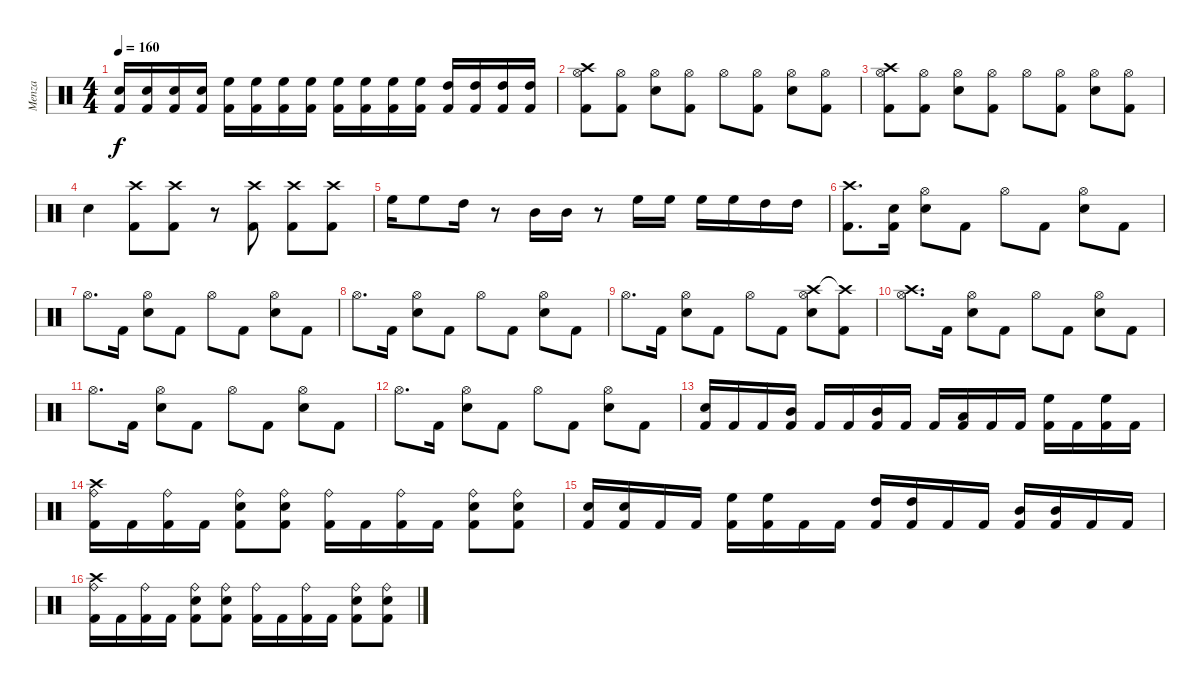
\track ("Menza" "Menza") {instrument percussion}
\staff {score}
\articulation defaults
\ts (4 4)
\tempo 160
\clef neutral
\ks c
("Snare (hit) 2" "Kick (hit) 2").16{dy f} ("Snare (hit) 2" "Kick (hit) 2").16 ("Snare (hit) 2" "Kick (hit) 2").16 ("Snare (hit) 2" "Kick (hit) 2").16 ("High Floor Tom (hit)" "Kick (hit) 2").16 ("High Floor Tom (hit)" "Kick (hit) 2").16 ("High Floor Tom (hit)" "Kick (hit) 2").16 ("High Floor Tom (hit)" "Kick (hit) 2").16 ("High Floor Tom (hit)" "Kick (hit) 2").16 ("High Floor Tom (hit)" "Kick (hit) 2").16 ("High Floor Tom (hit)" "Kick (hit) 2").16 ("High Floor Tom (hit)" "Kick (hit) 2").16 ("High Tom (hit)" "Kick (hit) 2").16 ("High Tom (hit)" "Kick (hit) 2").16 ("High Tom (hit)" "Kick (hit) 2").16 ("High Tom (hit)" "Kick (hit) 2").16 |
("Crash high (hit)" "Hi-Hat (open)" "Kick (hit) 2").8 ("Hi-Hat (open)" "Kick (hit) 2").8 ("Hi-Hat (open)" "Snare (hit) 2").8 ("Hi-Hat (open)" "Kick (hit) 2").8 "Hi-Hat (open)".8 ("Hi-Hat (open)" "Kick (hit) 2").8 ("Hi-Hat (open)" "Snare (hit) 2").8 ("Hi-Hat (open)" "Kick (hit) 2").8 |
("Crash high (hit)" "Hi-Hat (open)" "Kick (hit) 2").8 ("Hi-Hat (open)" "Kick (hit) 2").8 ("Hi-Hat (open)" "Snare (hit) 2").8 ("Hi-Hat (open)" "Kick (hit) 2").8 "Hi-Hat (open)".8 ("Hi-Hat (open)" "Kick (hit) 2").8 ("Hi-Hat (open)" "Snare (hit) 2").8 ("Hi-Hat (open)" "Kick (hit) 2").8 |
"Snare (hit) 2".4 ("Crash high (hit)" "Kick (hit) 2").8 ("Crash high (hit)" "Kick (hit) 2").8 r.8 ("Crash high (hit)" "Kick (hit) 2").8 ("Crash high (hit)" "Kick (hit) 2").8 ("Crash high (hit)" "Kick (hit) 2").8 |
"High Floor Tom (hit)".16 "High Floor Tom (hit)".8 "High Tom (hit)".16 r.8 "Mid Tom (hit)".16 "Mid Tom (hit)".16 r.8 "High Floor Tom (hit)".16 "High Floor Tom (hit)".16 "High Floor Tom (hit)".16 "High Floor Tom (hit)".16 "High Tom (hit)".16 "High Tom (hit)".16 |
("Crash high (hit)" "Kick (hit) 2").8{d} ("Snare (hit) 2" "Kick (hit) 2").16 ("Hi-Hat (open)" "Snare (hit) 2").8 "Kick (hit) 2".8 "Hi-Hat (open)".8 "Kick (hit) 2".8 ("Hi-Hat (open)" "Snare (hit) 2").8 "Kick (hit) 2".8 |
"Hi-Hat (open)".8{d} "Kick (hit) 2".16 ("Hi-Hat (open)" "Snare (hit) 2").8 "Kick (hit) 2".8 "Hi-Hat (open)".8 "Kick (hit) 2".8 ("Hi-Hat (open)" "Snare (hit) 2").8 "Kick (hit) 2".8 |
"Hi-Hat (open)".8{d} "Kick (hit) 2".16 ("Hi-Hat (open)" "Snare (hit) 2").8 "Kick (hit) 2".8 "Hi-Hat (open)".8 "Kick (hit) 2".8 ("Hi-Hat (open)" "Snare (hit) 2").8 "Kick (hit) 2".8 |
"Hi-Hat (open)".8{d} "Kick (hit) 2".16 ("Hi-Hat (open)" "Snare (hit) 2").8 "Kick (hit) 2".8 "Hi-Hat (open)".8 "Kick (hit) 2".8 ("Crash high (hit)" "Hi-Hat (open)" "Snare (hit) 2").8 ("Crash high (hit)"{t} "Kick (hit) 2").8 |
("Crash high (hit)" "Hi-Hat (open)").8{d} "Kick (hit) 2".16 ("Hi-Hat (open)" "Snare (hit) 2").8 "Kick (hit) 2".8 "Hi-Hat (open)".8 "Kick (hit) 2".8 ("Hi-Hat (open)" "Snare (hit) 2").8 "Kick (hit) 2".8 |
"Hi-Hat (open)".8{d} "Kick (hit) 2".16 ("Hi-Hat (open)" "Snare (hit) 2").8 "Kick (hit) 2".8 "Hi-Hat (open)".8 "Kick (hit) 2".8 ("Hi-Hat (open)" "Snare (hit) 2").8 "Kick (hit) 2".8 |
"Hi-Hat (open)".8{d} "Kick (hit) 2".16 ("Hi-Hat (open)" "Snare (hit) 2").8 "Kick (hit) 2".8 "Hi-Hat (open)".8 "Kick (hit) 2".8 ("Hi-Hat (open)" "Snare (hit) 2").8 "Kick (hit) 2".8 |
("Snare (hit) 2" "Kick (hit) 2").16 "Kick (hit) 2".16 "Kick (hit) 2".16 ("Mid Tom (hit)" "Kick (hit) 2").16 "Kick (hit) 2".16 "Kick (hit) 2".16 ("Mid Tom (hit)" "Kick (hit) 2").16 "Kick (hit) 2".16 "Kick (hit) 2".16 ("Low Tom (hit)" "Kick (hit) 2").16 "Kick (hit) 2".16 "Kick (hit) 2".16 ("High Floor Tom (hit)" "Kick (hit) 2").16 "Kick (hit) 2".16 ("High Floor Tom (hit)" "Kick (hit) 2").16 "Kick (hit) 2".16 |
("Crash high (hit)" "Ride (bell)" "Kick (hit) 2").16 "Kick (hit) 2".16 ("Ride (bell)" "Kick (hit) 2").16 "Kick (hit) 2".16 ("Ride (bell)" "Snare (hit) 2" "Kick (hit) 2").8 ("Ride (bell)" "Snare (hit) 2" "Kick (hit) 2").8 ("Ride (bell)" "Kick (hit) 2").16 "Kick (hit) 2".16 ("Ride (bell)" "Kick (hit) 2").16 "Kick (hit) 2".16 ("Ride (bell)" "Snare (hit) 2" "Kick (hit) 2").8 ("Ride (bell)" "Snare (hit) 2" "Kick (hit) 2").8 |
("Snare (hit) 2" "Kick (hit) 2").16 ("Snare (hit) 2" "Kick (hit) 2").16 "Kick (hit) 2".16 "Kick (hit) 2".16 ("High Floor Tom (hit)" "Kick (hit) 2").16 ("High Floor Tom (hit)" "Kick (hit) 2").16 "Kick (hit) 2".16 "Kick (hit) 2".16 ("High Tom (hit)" "Kick (hit) 2").16 ("High Tom (hit)" "Kick (hit) 2").16 "Kick (hit) 2".16 "Kick (hit) 2".16 ("Mid Tom (hit)" "Kick (hit) 2").16 ("Mid Tom (hit)" "Kick (hit) 2").16 "Kick (hit) 2".16 "Kick (hit) 2".16 |
("Crash high (hit)" "Ride (bell)" "Kick (hit) 2").16 "Kick (hit) 2".16 ("Ride (bell)" "Kick (hit) 2").16 "Kick (hit) 2".16 ("Ride (bell)" "Snare (hit) 2" "Kick (hit) 2").8 ("Ride (bell)" "Snare (hit) 2" "Kick (hit) 2").8 ("Ride (bell)" "Kick (hit) 2").16 "Kick (hit) 2".16 ("Ride (bell)" "Kick (hit) 2").16 "Kick (hit) 2".16 ("Ride (bell)" "Snare (hit) 2" "Kick (hit) 2").8 ("Ride (bell)" "Snare (hit) 2" "Kick (hit) 2").8
